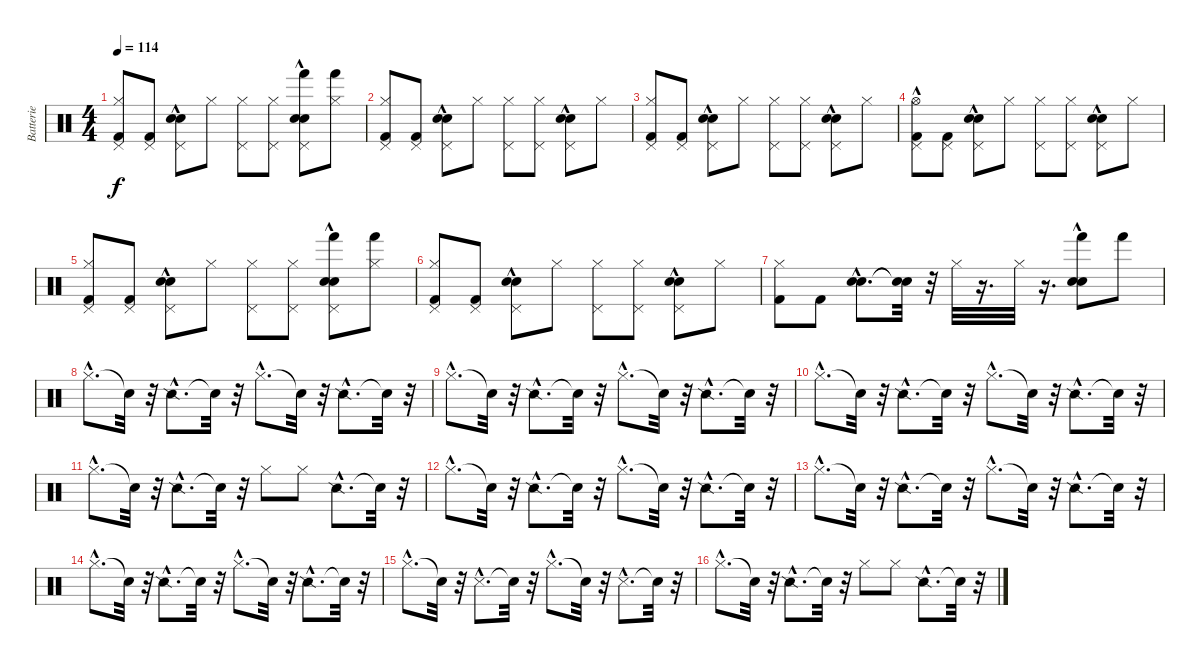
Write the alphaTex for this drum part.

\track ("Batterie" "Batterie") {instrument percussion}
\staff {score}
\articulation defaults
\ts (4 4)
\tempo 114
\clef neutral
\ks c
("Kick (hit) 2" "Hi-Hat (closed)" "Pedal Hi-Hat (hit)").8{dy f} ("Kick (hit) 2" "Pedal Hi-Hat (hit)").8 ("Snare (hit) 2"{hac} "Electric Snare (hit)"{hac} "Pedal Hi-Hat (hit)").8 "Hi-Hat (closed)".8 ("Hi-Hat (closed)" "Pedal Hi-Hat (hit)").8 ("Hi-Hat (closed)" "Pedal Hi-Hat (hit)").8 ("Snare (hit) 2"{hac} "Electric Snare (hit)"{hac} "Pedal Hi-Hat (hit)" "Hand (hit)").8 ("Hi-Hat (closed)" "Hand (hit)").8 |
("Kick (hit) 2" "Hi-Hat (closed)" "Pedal Hi-Hat (hit)").8 ("Kick (hit) 2" "Pedal Hi-Hat (hit)").8 ("Snare (hit) 2"{hac} "Electric Snare (hit)"{hac} "Pedal Hi-Hat (hit)").8 "Hi-Hat (closed)".8 ("Hi-Hat (closed)" "Pedal Hi-Hat (hit)").8 ("Hi-Hat (closed)" "Pedal Hi-Hat (hit)").8 ("Snare (hit) 2"{hac} "Electric Snare (hit)"{hac} "Pedal Hi-Hat (hit)").8 "Hi-Hat (closed)".8 |
("Kick (hit) 2" "Hi-Hat (closed)" "Pedal Hi-Hat (hit)").8 ("Kick (hit) 2" "Pedal Hi-Hat (hit)").8 ("Snare (hit) 2"{hac} "Electric Snare (hit)"{hac} "Pedal Hi-Hat (hit)").8 "Hi-Hat (closed)".8 ("Hi-Hat (closed)" "Pedal Hi-Hat (hit)").8 ("Hi-Hat (closed)" "Pedal Hi-Hat (hit)").8 ("Snare (hit) 2"{hac} "Electric Snare (hit)"{hac} "Pedal Hi-Hat (hit)").8 "Hi-Hat (closed)".8 |
("Kick (hit) 2" "Hi-Hat (open)"{hac} "Pedal Hi-Hat (hit)").8 ("Kick (hit) 2" "Pedal Hi-Hat (hit)").8 ("Snare (hit) 2"{hac} "Electric Snare (hit)"{hac} "Pedal Hi-Hat (hit)").8 "Hi-Hat (closed)".8 ("Hi-Hat (closed)" "Pedal Hi-Hat (hit)").8 ("Hi-Hat (closed)" "Pedal Hi-Hat (hit)").8 ("Snare (hit) 2"{hac} "Electric Snare (hit)"{hac} "Pedal Hi-Hat (hit)").8 "Hi-Hat (closed)".8 |
("Kick (hit) 2" "Hi-Hat (closed)" "Pedal Hi-Hat (hit)").8 ("Kick (hit) 2" "Pedal Hi-Hat (hit)").8 ("Snare (hit) 2"{hac} "Electric Snare (hit)"{hac} "Pedal Hi-Hat (hit)").8 "Hi-Hat (closed)".8 ("Hi-Hat (closed)" "Pedal Hi-Hat (hit)").8 ("Hi-Hat (closed)" "Pedal Hi-Hat (hit)").8 ("Snare (hit) 2"{hac} "Electric Snare (hit)"{hac} "Pedal Hi-Hat (hit)" "Hand (hit)").8 ("Hi-Hat (closed)" "Hand (hit)").8 |
("Kick (hit) 2" "Hi-Hat (closed)" "Pedal Hi-Hat (hit)").8 ("Kick (hit) 2" "Pedal Hi-Hat (hit)").8 ("Snare (hit) 2"{hac} "Electric Snare (hit)"{hac} "Pedal Hi-Hat (hit)").8 "Hi-Hat (closed)".8 ("Hi-Hat (closed)" "Pedal Hi-Hat (hit)").8 ("Hi-Hat (closed)" "Pedal Hi-Hat (hit)").8 ("Snare (hit) 2"{hac} "Electric Snare (hit)"{hac} "Pedal Hi-Hat (hit)").8 "Hi-Hat (closed)".8 |
("Kick (hit) 2" "Hi-Hat (closed)").8 "Kick (hit) 2".8 ("Snare (hit) 2"{hac} "Electric Snare (hit)"{hac}).8{d} ("Snare (hit)"{t} "Snare (hit)"{t}).32 r.32 "Hi-Hat (closed)".32 r.16{d} "Hi-Hat (closed)".32 r.16{d} ("Snare (hit) 2"{hac} "Electric Snare (hit)"{hac} "Hand (hit)").8 "Hand (hit)".8 |
"Hi-Hat (closed)"{hac}.8{d} "Snare (hit)"{t}.32 r.32 "Snare (side stick) 2"{hac}.8{d} "Snare (hit)"{t}.32 r.32 "Hi-Hat (closed)"{hac}.8{d} "Snare (hit)"{t}.32 r.32 "Snare (side stick) 2"{hac}.8{d} "Snare (hit)"{t}.32 r.32 |
"Hi-Hat (closed)"{hac}.8{d} "Snare (hit)"{t}.32 r.32 "Snare (side stick) 2"{hac}.8{d} "Snare (hit)"{t}.32 r.32 "Hi-Hat (closed)"{hac}.8{d} "Snare (hit)"{t}.32 r.32 "Snare (side stick) 2"{hac}.8{d} "Snare (hit)"{t}.32 r.32 |
"Hi-Hat (closed)"{hac}.8{d} "Snare (hit)"{t}.32 r.32 "Snare (side stick) 2"{hac}.8{d} "Snare (hit)"{t}.32 r.32 "Hi-Hat (closed)"{hac}.8{d} "Snare (hit)"{t}.32 r.32 "Snare (side stick) 2"{hac}.8{d} "Snare (hit)"{t}.32 r.32 |
"Hi-Hat (closed)"{hac}.8{d} "Snare (hit)"{t}.32 r.32 "Snare (side stick) 2"{hac}.8{d} "Snare (hit)"{t}.32 r.32 "Hi-Hat (closed)".8 "Hi-Hat (closed)".8 "Snare (side stick) 2"{hac}.8{d} "Snare (hit)"{t}.32 r.32 |
"Hi-Hat (closed)"{hac}.8{d} "Snare (hit)"{t}.32 r.32 "Snare (side stick) 2"{hac}.8{d} "Snare (hit)"{t}.32 r.32 "Hi-Hat (closed)"{hac}.8{d} "Snare (hit)"{t}.32 r.32 "Snare (side stick) 2"{hac}.8{d} "Snare (hit)"{t}.32 r.32 |
"Hi-Hat (closed)"{hac}.8{d} "Snare (hit)"{t}.32 r.32 "Snare (side stick) 2"{hac}.8{d} "Snare (hit)"{t}.32 r.32 "Hi-Hat (closed)"{hac}.8{d} "Snare (hit)"{t}.32 r.32 "Snare (side stick) 2"{hac}.8{d} "Snare (hit)"{t}.32 r.32 |
"Hi-Hat (closed)"{hac}.8{d} "Snare (hit)"{t}.32 r.32 "Snare (side stick) 2"{hac}.8{d} "Snare (hit)"{t}.32 r.32 "Hi-Hat (closed)"{hac}.8{d} "Snare (hit)"{t}.32 r.32 "Snare (side stick) 2"{hac}.8{d} "Snare (hit)"{t}.32 r.32 |
"Hi-Hat (closed)"{hac}.8{d} "Snare (hit)"{t}.32 r.32 "Snare (side stick) 3"{hac}.8{d} "Snare (hit)"{t}.32 r.32 "Hi-Hat (closed)"{hac}.8{d} "Snare (hit)"{t}.32 r.32 "Snare (side stick) 3"{hac}.8{d} "Snare (hit)"{t}.32 r.32 |
"Hi-Hat (closed)"{hac}.8{d} "Snare (hit)"{t}.32 r.32 "Snare (side stick) 2"{hac}.8{d} "Snare (hit)"{t}.32 r.32 "Hi-Hat (closed)".8 "Hi-Hat (closed)".8 "Snare (side stick) 2"{hac}.8{d} "Snare (hit)"{t}.32 r.32
